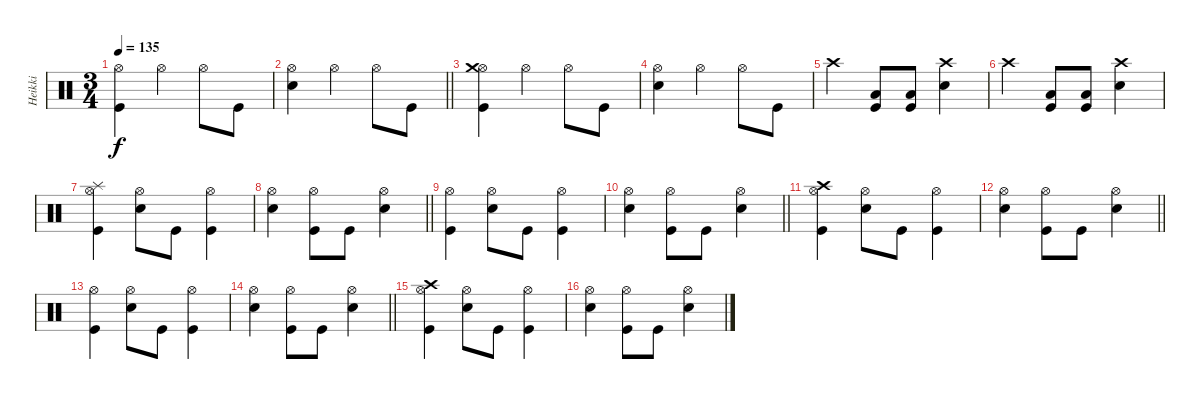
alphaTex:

\track ("Heikki" "Heikki") {instrument percussion}
\staff {score}
\articulation defaults
\ts (3 4)
\tempo 135
\clef neutral
\ks c
("Hi-Hat (open)" "Kick (hit)").4{dy f} "Hi-Hat (open)".4 "Hi-Hat (open)".8 "Kick (hit)".8 |
\barLineRight lightlight
("Hi-Hat (open)" "Snare (hit) 2").4 "Hi-Hat (open)".4 "Hi-Hat (open)".8 "Kick (hit)".8 |
("Hi-Hat (open)" "Crash medium (hit)" "Kick (hit)").4 "Hi-Hat (open)".4 "Hi-Hat (open)".8 "Kick (hit)".8 |
("Hi-Hat (open)" "Snare (hit) 2").4 "Hi-Hat (open)".4 "Hi-Hat (open)".8 "Kick (hit)".8 |
"Crash high (hit)".4 ("Low Floor Tom (hit)" "Kick (hit)").8 ("Low Floor Tom (hit)" "Kick (hit)").8 ("Crash high (hit)" "Snare (hit) 2").4 |
"Crash high (hit)".4 ("Low Floor Tom (hit)" "Kick (hit)").8 ("Low Floor Tom (hit)" "Kick (hit)").8 ("Crash high (hit)" "Snare (hit) 2").4 |
("Hi-Hat (open)" "Splash (hit)" "Kick (hit)").4 ("Hi-Hat (open)" "Snare (hit) 2").8 "Kick (hit)".8 ("Hi-Hat (open)" "Kick (hit)").4 |
\barLineRight lightlight
("Hi-Hat (open)" "Snare (hit) 2").4 ("Hi-Hat (open)" "Kick (hit)").8 "Kick (hit)".8 ("Hi-Hat (open)" "Snare (hit) 2").4 |
("Hi-Hat (open)" "Kick (hit)").4 ("Hi-Hat (open)" "Snare (hit) 2").8 "Kick (hit)".8 ("Hi-Hat (open)" "Kick (hit)").4 |
\barLineRight lightlight
("Hi-Hat (open)" "Snare (hit) 2").4 ("Hi-Hat (open)" "Kick (hit)").8 "Kick (hit)".8 ("Hi-Hat (open)" "Snare (hit) 2").4 |
("Hi-Hat (open)" "Crash high (hit)" "Kick (hit)").4 ("Hi-Hat (open)" "Snare (hit) 2").8 "Kick (hit)".8 ("Hi-Hat (open)" "Kick (hit)").4 |
\barLineRight lightlight
("Hi-Hat (open)" "Snare (hit) 2").4 ("Hi-Hat (open)" "Kick (hit)").8 "Kick (hit)".8 ("Hi-Hat (open)" "Snare (hit) 2").4 |
("Hi-Hat (open)" "Kick (hit)").4 ("Hi-Hat (open)" "Snare (hit) 2").8 "Kick (hit)".8 ("Hi-Hat (open)" "Kick (hit)").4 |
\barLineRight lightlight
("Hi-Hat (open)" "Snare (hit) 2").4 ("Hi-Hat (open)" "Kick (hit)").8 "Kick (hit)".8 ("Hi-Hat (open)" "Snare (hit) 2").4 |
("Hi-Hat (open)" "Crash high (hit)" "Kick (hit)").4 ("Hi-Hat (open)" "Snare (hit) 2").8 "Kick (hit)".8 ("Hi-Hat (open)" "Kick (hit)").4 |
("Hi-Hat (open)" "Snare (hit) 2").4 ("Hi-Hat (open)" "Kick (hit)").8 "Kick (hit)".8 ("Hi-Hat (open)" "Snare (hit) 2").4
